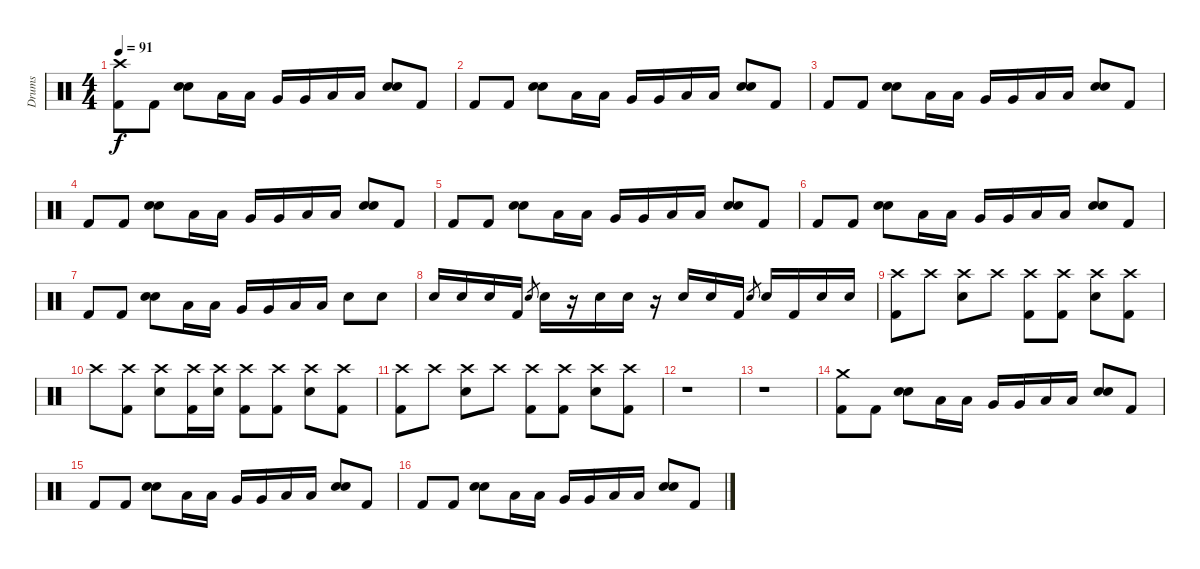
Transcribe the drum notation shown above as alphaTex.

\track ("Drums" "Drums") {instrument percussion}
\staff {score}
\articulation defaults
\ts (4 4)
\tempo 91
\clef neutral
\ks c
("Crash high (hit)" "Kick (hit) 2").8{dy f} "Kick (hit) 2".8 ("Electric Snare (hit)" "Electric Snare (hit)").8 "Low Tom (hit)".16 "Low Tom (hit)".16 "Very Low Tom (hit)".16 "Very Low Tom (hit)".16 "Low Floor Tom (hit)".16 "Low Floor Tom (hit)".16 ("Electric Snare (hit)" "Electric Snare (hit)").8 "Kick (hit) 2".8 |
"Kick (hit) 2".8 "Kick (hit) 2".8 ("Electric Snare (hit)" "Electric Snare (hit)").8 "Low Tom (hit)".16 "Low Tom (hit)".16 "Very Low Tom (hit)".16 "Very Low Tom (hit)".16 "Low Floor Tom (hit)".16 "Low Floor Tom (hit)".16 ("Electric Snare (hit)" "Electric Snare (hit)").8 "Kick (hit) 2".8 |
"Kick (hit) 2".8 "Kick (hit) 2".8 ("Electric Snare (hit)" "Electric Snare (hit)").8 "Low Tom (hit)".16 "Low Tom (hit)".16 "Very Low Tom (hit)".16 "Very Low Tom (hit)".16 "Low Floor Tom (hit)".16 "Low Floor Tom (hit)".16 ("Electric Snare (hit)" "Electric Snare (hit)").8 "Kick (hit) 2".8 |
"Kick (hit) 2".8 "Kick (hit) 2".8 ("Electric Snare (hit)" "Electric Snare (hit)").8 "Low Tom (hit)".16 "Low Tom (hit)".16 "Very Low Tom (hit)".16 "Very Low Tom (hit)".16 "Low Floor Tom (hit)".16 "Low Floor Tom (hit)".16 ("Electric Snare (hit)" "Electric Snare (hit)").8 "Kick (hit) 2".8 |
"Kick (hit) 2".8 "Kick (hit) 2".8 ("Electric Snare (hit)" "Electric Snare (hit)").8 "Low Tom (hit)".16 "Low Tom (hit)".16 "Very Low Tom (hit)".16 "Very Low Tom (hit)".16 "Low Floor Tom (hit)".16 "Low Floor Tom (hit)".16 ("Electric Snare (hit)" "Electric Snare (hit)").8 "Kick (hit) 2".8 |
"Kick (hit) 2".8 "Kick (hit) 2".8 ("Electric Snare (hit)" "Electric Snare (hit)").8 "Low Tom (hit)".16 "Low Tom (hit)".16 "Very Low Tom (hit)".16 "Very Low Tom (hit)".16 "Low Floor Tom (hit)".16 "Low Floor Tom (hit)".16 ("Electric Snare (hit)" "Electric Snare (hit)").8 "Kick (hit) 2".8 |
"Kick (hit) 2".8 "Kick (hit) 2".8 ("Electric Snare (hit)" "Electric Snare (hit)").8 "Low Tom (hit)".16 "Low Tom (hit)".16 "Very Low Tom (hit)".16 "Very Low Tom (hit)".16 "Low Floor Tom (hit)".16 "Low Floor Tom (hit)".16 "Electric Snare (hit)".8 "Electric Snare (hit)".8 |
"Electric Snare (hit)".16 "Electric Snare (hit)".16 "Electric Snare (hit)".16 "Kick (hit) 2".16 "Electric Snare (hit)".8{gr} "Electric Snare (hit)".16 r.16 "Electric Snare (hit)".16 "Electric Snare (hit)".16 r.16 "Electric Snare (hit)".16 "Electric Snare (hit)".16 "Kick (hit) 2".16 "Electric Snare (hit)".8{gr} "Electric Snare (hit)".16 "Kick (hit) 2".16 "Electric Snare (hit)".16 "Electric Snare (hit)".16 |
("Crash high (hit)" "Kick (hit) 2").8 "Crash high (hit)".8 ("Crash high (hit)" "Electric Snare (hit)").8 "Crash high (hit)".8 ("Crash high (hit)" "Kick (hit) 2").8 ("Crash high (hit)" "Kick (hit) 2").8 ("Crash high (hit)" "Electric Snare (hit)").8 ("Crash high (hit)" "Kick (hit) 2").8 |
"Crash high (hit)".8 ("Crash high (hit)" "Kick (hit) 2").8 ("Crash high (hit)" "Electric Snare (hit)").8 ("Crash high (hit)" "Kick (hit) 2").16 ("Crash high (hit)" "Electric Snare (hit)").16 ("Crash high (hit)" "Kick (hit) 2").8 ("Crash high (hit)" "Kick (hit) 2").8 ("Crash high (hit)" "Electric Snare (hit)").8 ("Crash high (hit)" "Kick (hit) 2").8 |
("Crash high (hit)" "Kick (hit) 2").8 "Crash high (hit)".8 ("Crash high (hit)" "Electric Snare (hit)").8 "Crash high (hit)".8 ("Crash high (hit)" "Kick (hit) 2").8 ("Crash high (hit)" "Kick (hit) 2").8 ("Crash high (hit)" "Electric Snare (hit)").8 ("Crash high (hit)" "Kick (hit) 2").8 |
r.1 |
r.1 |
("Crash medium (hit)" "Kick (hit) 2").8 "Kick (hit) 2".8 ("Electric Snare (hit)" "Electric Snare (hit)").8 "Low Tom (hit)".16 "Low Tom (hit)".16 "Very Low Tom (hit)".16 "Very Low Tom (hit)".16 "Low Floor Tom (hit)".16 "Low Floor Tom (hit)".16 ("Electric Snare (hit)" "Electric Snare (hit)").8 "Kick (hit) 2".8 |
"Kick (hit) 2".8 "Kick (hit) 2".8 ("Electric Snare (hit)" "Electric Snare (hit)").8 "Low Tom (hit)".16 "Low Tom (hit)".16 "Very Low Tom (hit)".16 "Very Low Tom (hit)".16 "Low Floor Tom (hit)".16 "Low Floor Tom (hit)".16 ("Electric Snare (hit)" "Electric Snare (hit)").8 "Kick (hit) 2".8 |
"Kick (hit) 2".8 "Kick (hit) 2".8 ("Electric Snare (hit)" "Electric Snare (hit)").8 "Low Tom (hit)".16 "Low Tom (hit)".16 "Very Low Tom (hit)".16 "Very Low Tom (hit)".16 "Low Floor Tom (hit)".16 "Low Floor Tom (hit)".16 ("Electric Snare (hit)" "Electric Snare (hit)").8 "Kick (hit) 2".8
